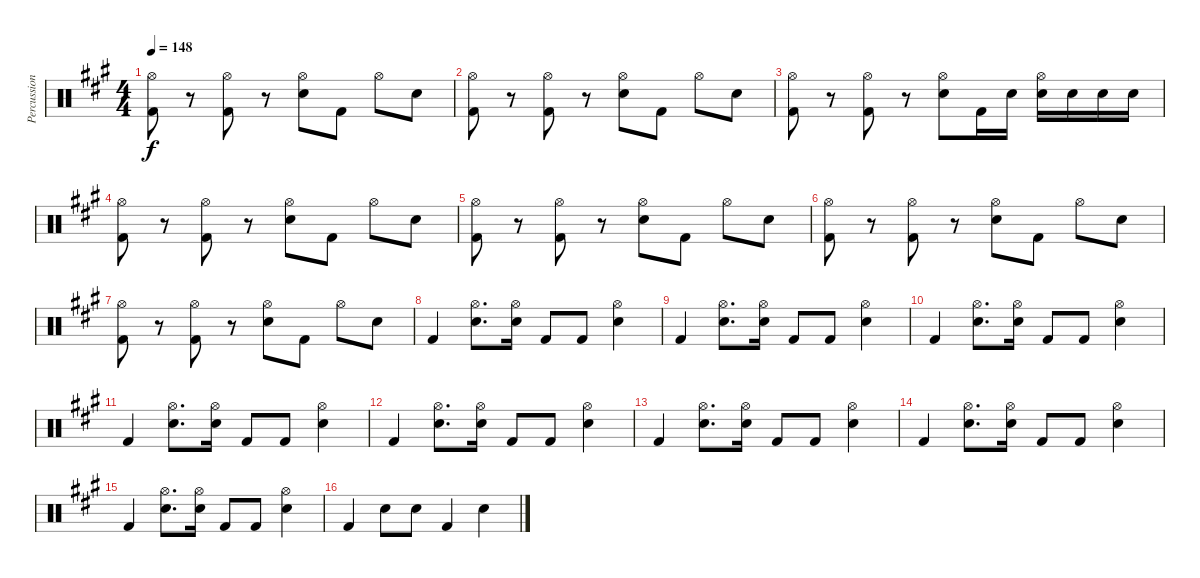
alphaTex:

\track ("Percussion" "Percussion") {instrument percussion}
\staff {score}
\articulation defaults
\ts (4 4)
\tempo 148
\clef neutral
\ks a
("Hi-Hat (open)" "Kick (hit) 2").8{dy f} r.8 ("Hi-Hat (open)" "Kick (hit) 2").8 r.8 ("Hi-Hat (open)" "Electric Snare (hit)").8 "Kick (hit) 2".8 "Hi-Hat (open)".8 "Electric Snare (hit)".8 |
("Hi-Hat (open)" "Kick (hit) 2").8 r.8 ("Hi-Hat (open)" "Kick (hit) 2").8 r.8 ("Hi-Hat (open)" "Electric Snare (hit)").8 "Kick (hit) 2".8 "Hi-Hat (open)".8 "Electric Snare (hit)".8 |
("Hi-Hat (open)" "Kick (hit) 2").8 r.8 ("Hi-Hat (open)" "Kick (hit) 2").8 r.8 ("Hi-Hat (open)" "Electric Snare (hit)").8 "Kick (hit) 2".16 "Electric Snare (hit)".16 ("Hi-Hat (open)" "Electric Snare (hit)").16 "Electric Snare (hit)".16 "Electric Snare (hit)".16 "Electric Snare (hit)".16 |
("Hi-Hat (open)" "Kick (hit) 2").8 r.8 ("Hi-Hat (open)" "Kick (hit) 2").8 r.8 ("Hi-Hat (open)" "Electric Snare (hit)").8 "Kick (hit) 2".8 "Hi-Hat (open)".8 "Electric Snare (hit)".8 |
("Hi-Hat (open)" "Kick (hit) 2").8 r.8 ("Hi-Hat (open)" "Kick (hit) 2").8 r.8 ("Hi-Hat (open)" "Electric Snare (hit)").8 "Kick (hit) 2".8 "Hi-Hat (open)".8 "Electric Snare (hit)".8 |
("Hi-Hat (open)" "Kick (hit) 2").8 r.8 ("Hi-Hat (open)" "Kick (hit) 2").8 r.8 ("Hi-Hat (open)" "Electric Snare (hit)").8 "Kick (hit) 2".8 "Hi-Hat (open)".8 "Electric Snare (hit)".8 |
("Hi-Hat (open)" "Kick (hit) 2").8 r.8 ("Hi-Hat (open)" "Kick (hit) 2").8 r.8 ("Hi-Hat (open)" "Electric Snare (hit)").8 "Kick (hit) 2".8 "Hi-Hat (open)".8 "Electric Snare (hit)".8 |
"Kick (hit) 2".4 ("Hi-Hat (open)" "Electric Snare (hit)").8{d} ("Hi-Hat (open)" "Electric Snare (hit)").16 "Kick (hit) 2".8 "Kick (hit) 2".8 ("Hi-Hat (open)" "Electric Snare (hit)").4 |
"Kick (hit) 2".4 ("Hi-Hat (open)" "Electric Snare (hit)").8{d} ("Hi-Hat (open)" "Electric Snare (hit)").16 "Kick (hit) 2".8 "Kick (hit) 2".8 ("Hi-Hat (open)" "Electric Snare (hit)").4 |
"Kick (hit) 2".4 ("Hi-Hat (open)" "Electric Snare (hit)").8{d} ("Hi-Hat (open)" "Electric Snare (hit)").16 "Kick (hit) 2".8 "Kick (hit) 2".8 ("Hi-Hat (open)" "Electric Snare (hit)").4 |
"Kick (hit) 2".4 ("Hi-Hat (open)" "Electric Snare (hit)").8{d} ("Hi-Hat (open)" "Electric Snare (hit)").16 "Kick (hit) 2".8 "Kick (hit) 2".8 ("Hi-Hat (open)" "Electric Snare (hit)").4 |
"Kick (hit) 2".4 ("Hi-Hat (open)" "Electric Snare (hit)").8{d} ("Hi-Hat (open)" "Electric Snare (hit)").16 "Kick (hit) 2".8 "Kick (hit) 2".8 ("Hi-Hat (open)" "Electric Snare (hit)").4 |
"Kick (hit) 2".4 ("Hi-Hat (open)" "Electric Snare (hit)").8{d} ("Hi-Hat (open)" "Electric Snare (hit)").16 "Kick (hit) 2".8 "Kick (hit) 2".8 ("Hi-Hat (open)" "Electric Snare (hit)").4 |
"Kick (hit) 2".4 ("Hi-Hat (open)" "Electric Snare (hit)").8{d} ("Hi-Hat (open)" "Electric Snare (hit)").16 "Kick (hit) 2".8 "Kick (hit) 2".8 ("Hi-Hat (open)" "Electric Snare (hit)").4 |
"Kick (hit) 2".4 ("Hi-Hat (open)" "Electric Snare (hit)").8{d} ("Hi-Hat (open)" "Electric Snare (hit)").16 "Kick (hit) 2".8 "Kick (hit) 2".8 ("Hi-Hat (open)" "Electric Snare (hit)").4 |
"Kick (hit) 2".4 "Electric Snare (hit)".8 "Electric Snare (hit)".8 "Kick (hit) 2".4 "Electric Snare (hit)".4
